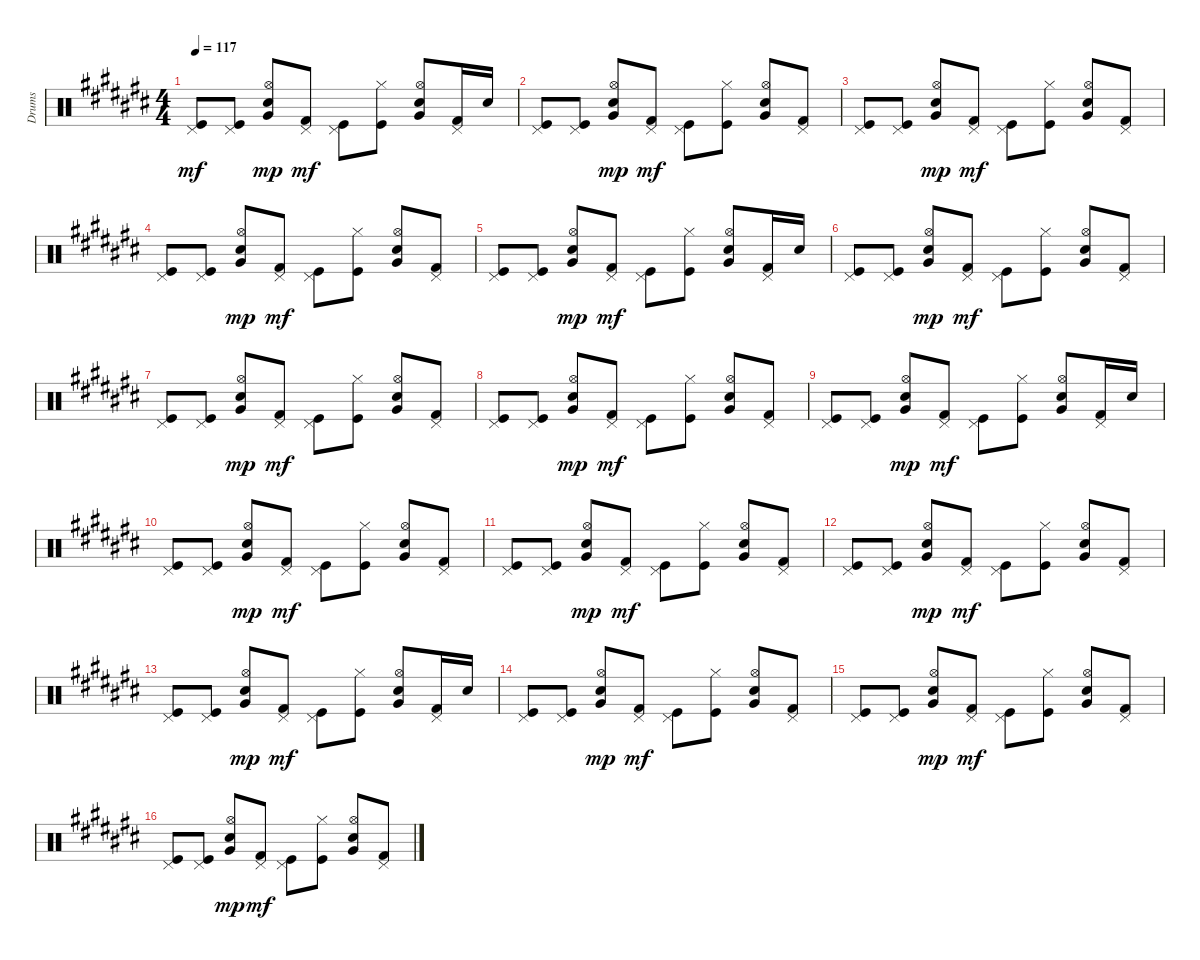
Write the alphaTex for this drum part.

\track ("Drums" "Drums") {instrument percussion}
\staff {score}
\articulation defaults
\ts (4 4)
\tempo 117
\clef neutral
\ks a#minor
("Pedal Hi-Hat (hit)" "Kick (hit)").8{dy mf} ("Kick (hit)" "Pedal Hi-Hat (hit)").8 ("Snare (hit) 2" "Hi-Hat (open)" "Very Low Tom (hit)").8{dy mp} ("Pedal Hi-Hat (hit)" "Kick (hit) 2").8{dy mf} ("Pedal Hi-Hat (hit)" "Kick (hit)").8 ("Kick (hit)" "Hi-Hat (closed)").8 ("Very Low Tom (hit)" "Snare (hit) 2" "Hi-Hat (open)").8 ("Pedal Hi-Hat (hit)" "Kick (hit) 2").16 "Snare (hit) 2".16 |
("Kick (hit)" "Pedal Hi-Hat (hit)").8 ("Kick (hit)" "Pedal Hi-Hat (hit)").8 ("Snare (hit) 2" "Hi-Hat (open)" "Very Low Tom (hit)").8{dy mp} ("Pedal Hi-Hat (hit)" "Kick (hit) 2").8{dy mf} ("Pedal Hi-Hat (hit)" "Kick (hit)").8 ("Kick (hit)" "Hi-Hat (closed)").8 ("Very Low Tom (hit)" "Snare (hit) 2" "Hi-Hat (open)").8 ("Pedal Hi-Hat (hit)" "Kick (hit) 2").8 |
("Pedal Hi-Hat (hit)" "Kick (hit)").8 ("Kick (hit)" "Pedal Hi-Hat (hit)").8 ("Snare (hit) 2" "Hi-Hat (open)" "Very Low Tom (hit)").8{dy mp} ("Pedal Hi-Hat (hit)" "Kick (hit) 2").8{dy mf} ("Pedal Hi-Hat (hit)" "Kick (hit)").8 ("Kick (hit)" "Hi-Hat (closed)").8 ("Very Low Tom (hit)" "Snare (hit) 2" "Hi-Hat (open)").8 ("Pedal Hi-Hat (hit)" "Kick (hit) 2").8 |
("Kick (hit)" "Pedal Hi-Hat (hit)").8 ("Kick (hit)" "Pedal Hi-Hat (hit)").8 ("Snare (hit) 2" "Hi-Hat (open)" "Very Low Tom (hit)").8{dy mp} ("Pedal Hi-Hat (hit)" "Kick (hit) 2").8{dy mf} ("Pedal Hi-Hat (hit)" "Kick (hit)").8 ("Kick (hit)" "Hi-Hat (closed)").8 ("Very Low Tom (hit)" "Snare (hit) 2" "Hi-Hat (open)").8 ("Pedal Hi-Hat (hit)" "Kick (hit) 2").8 |
("Pedal Hi-Hat (hit)" "Kick (hit)").8 ("Kick (hit)" "Pedal Hi-Hat (hit)").8 ("Snare (hit) 2" "Hi-Hat (open)" "Very Low Tom (hit)").8{dy mp} ("Pedal Hi-Hat (hit)" "Kick (hit) 2").8{dy mf} ("Pedal Hi-Hat (hit)" "Kick (hit)").8 ("Kick (hit)" "Hi-Hat (closed)").8 ("Very Low Tom (hit)" "Snare (hit) 2" "Hi-Hat (open)").8 ("Pedal Hi-Hat (hit)" "Kick (hit) 2").16 "Snare (hit) 2".16 |
("Kick (hit)" "Pedal Hi-Hat (hit)").8 ("Kick (hit)" "Pedal Hi-Hat (hit)").8 ("Snare (hit) 2" "Hi-Hat (open)" "Very Low Tom (hit)").8{dy mp} ("Pedal Hi-Hat (hit)" "Kick (hit) 2").8{dy mf} ("Pedal Hi-Hat (hit)" "Kick (hit)").8 ("Kick (hit)" "Hi-Hat (closed)").8 ("Very Low Tom (hit)" "Snare (hit) 2" "Hi-Hat (open)").8 ("Pedal Hi-Hat (hit)" "Kick (hit) 2").8 |
("Pedal Hi-Hat (hit)" "Kick (hit)").8 ("Kick (hit)" "Pedal Hi-Hat (hit)").8 ("Snare (hit) 2" "Hi-Hat (open)" "Very Low Tom (hit)").8{dy mp} ("Pedal Hi-Hat (hit)" "Kick (hit) 2").8{dy mf} ("Pedal Hi-Hat (hit)" "Kick (hit)").8 ("Kick (hit)" "Hi-Hat (closed)").8 ("Very Low Tom (hit)" "Snare (hit) 2" "Hi-Hat (open)").8 ("Pedal Hi-Hat (hit)" "Kick (hit) 2").8 |
("Kick (hit)" "Pedal Hi-Hat (hit)").8 ("Kick (hit)" "Pedal Hi-Hat (hit)").8 ("Snare (hit) 2" "Hi-Hat (open)" "Very Low Tom (hit)").8{dy mp} ("Pedal Hi-Hat (hit)" "Kick (hit) 2").8{dy mf} ("Pedal Hi-Hat (hit)" "Kick (hit)").8 ("Kick (hit)" "Hi-Hat (closed)").8 ("Very Low Tom (hit)" "Snare (hit) 2" "Hi-Hat (open)").8 ("Pedal Hi-Hat (hit)" "Kick (hit) 2").8 |
("Pedal Hi-Hat (hit)" "Kick (hit)").8 ("Kick (hit)" "Pedal Hi-Hat (hit)").8 ("Snare (hit) 2" "Hi-Hat (open)" "Very Low Tom (hit)").8{dy mp} ("Pedal Hi-Hat (hit)" "Kick (hit) 2").8{dy mf} ("Pedal Hi-Hat (hit)" "Kick (hit)").8 ("Kick (hit)" "Hi-Hat (closed)").8 ("Very Low Tom (hit)" "Snare (hit) 2" "Hi-Hat (open)").8 ("Pedal Hi-Hat (hit)" "Kick (hit) 2").16 "Snare (hit) 2".16 |
("Kick (hit)" "Pedal Hi-Hat (hit)").8 ("Kick (hit)" "Pedal Hi-Hat (hit)").8 ("Snare (hit) 2" "Hi-Hat (open)" "Very Low Tom (hit)").8{dy mp} ("Pedal Hi-Hat (hit)" "Kick (hit) 2").8{dy mf} ("Pedal Hi-Hat (hit)" "Kick (hit)").8 ("Kick (hit)" "Hi-Hat (closed)").8 ("Very Low Tom (hit)" "Snare (hit) 2" "Hi-Hat (open)").8 ("Pedal Hi-Hat (hit)" "Kick (hit) 2").8 |
("Pedal Hi-Hat (hit)" "Kick (hit)").8 ("Kick (hit)" "Pedal Hi-Hat (hit)").8 ("Snare (hit) 2" "Hi-Hat (open)" "Very Low Tom (hit)").8{dy mp} ("Pedal Hi-Hat (hit)" "Kick (hit) 2").8{dy mf} ("Pedal Hi-Hat (hit)" "Kick (hit)").8 ("Kick (hit)" "Hi-Hat (closed)").8 ("Very Low Tom (hit)" "Snare (hit) 2" "Hi-Hat (open)").8 ("Pedal Hi-Hat (hit)" "Kick (hit) 2").8 |
("Kick (hit)" "Pedal Hi-Hat (hit)").8 ("Kick (hit)" "Pedal Hi-Hat (hit)").8 ("Snare (hit) 2" "Hi-Hat (open)" "Very Low Tom (hit)").8{dy mp} ("Pedal Hi-Hat (hit)" "Kick (hit) 2").8{dy mf} ("Pedal Hi-Hat (hit)" "Kick (hit)").8 ("Kick (hit)" "Hi-Hat (closed)").8 ("Very Low Tom (hit)" "Snare (hit) 2" "Hi-Hat (open)").8 ("Pedal Hi-Hat (hit)" "Kick (hit) 2").8 |
("Pedal Hi-Hat (hit)" "Kick (hit)").8 ("Kick (hit)" "Pedal Hi-Hat (hit)").8 ("Snare (hit) 2" "Hi-Hat (open)" "Very Low Tom (hit)").8{dy mp} ("Pedal Hi-Hat (hit)" "Kick (hit) 2").8{dy mf} ("Pedal Hi-Hat (hit)" "Kick (hit)").8 ("Kick (hit)" "Hi-Hat (closed)").8 ("Very Low Tom (hit)" "Snare (hit) 2" "Hi-Hat (open)").8 ("Pedal Hi-Hat (hit)" "Kick (hit) 2").16 "Snare (hit) 2".16 |
("Kick (hit)" "Pedal Hi-Hat (hit)").8 ("Kick (hit)" "Pedal Hi-Hat (hit)").8 ("Snare (hit) 2" "Hi-Hat (open)" "Very Low Tom (hit)").8{dy mp} ("Pedal Hi-Hat (hit)" "Kick (hit) 2").8{dy mf} ("Pedal Hi-Hat (hit)" "Kick (hit)").8 ("Kick (hit)" "Hi-Hat (closed)").8 ("Very Low Tom (hit)" "Snare (hit) 2" "Hi-Hat (open)").8 ("Pedal Hi-Hat (hit)" "Kick (hit) 2").8 |
("Pedal Hi-Hat (hit)" "Kick (hit)").8 ("Kick (hit)" "Pedal Hi-Hat (hit)").8 ("Snare (hit) 2" "Hi-Hat (open)" "Very Low Tom (hit)").8{dy mp} ("Pedal Hi-Hat (hit)" "Kick (hit) 2").8{dy mf} ("Pedal Hi-Hat (hit)" "Kick (hit)").8 ("Kick (hit)" "Hi-Hat (closed)").8 ("Very Low Tom (hit)" "Snare (hit) 2" "Hi-Hat (open)").8 ("Pedal Hi-Hat (hit)" "Kick (hit) 2").8 |
("Kick (hit)" "Pedal Hi-Hat (hit)").8 ("Kick (hit)" "Pedal Hi-Hat (hit)").8 ("Snare (hit) 2" "Hi-Hat (open)" "Very Low Tom (hit)").8{dy mp} ("Pedal Hi-Hat (hit)" "Kick (hit) 2").8{dy mf} ("Pedal Hi-Hat (hit)" "Kick (hit)").8 ("Kick (hit)" "Hi-Hat (closed)").8 ("Very Low Tom (hit)" "Snare (hit) 2" "Hi-Hat (open)").8 ("Pedal Hi-Hat (hit)" "Kick (hit) 2").8
